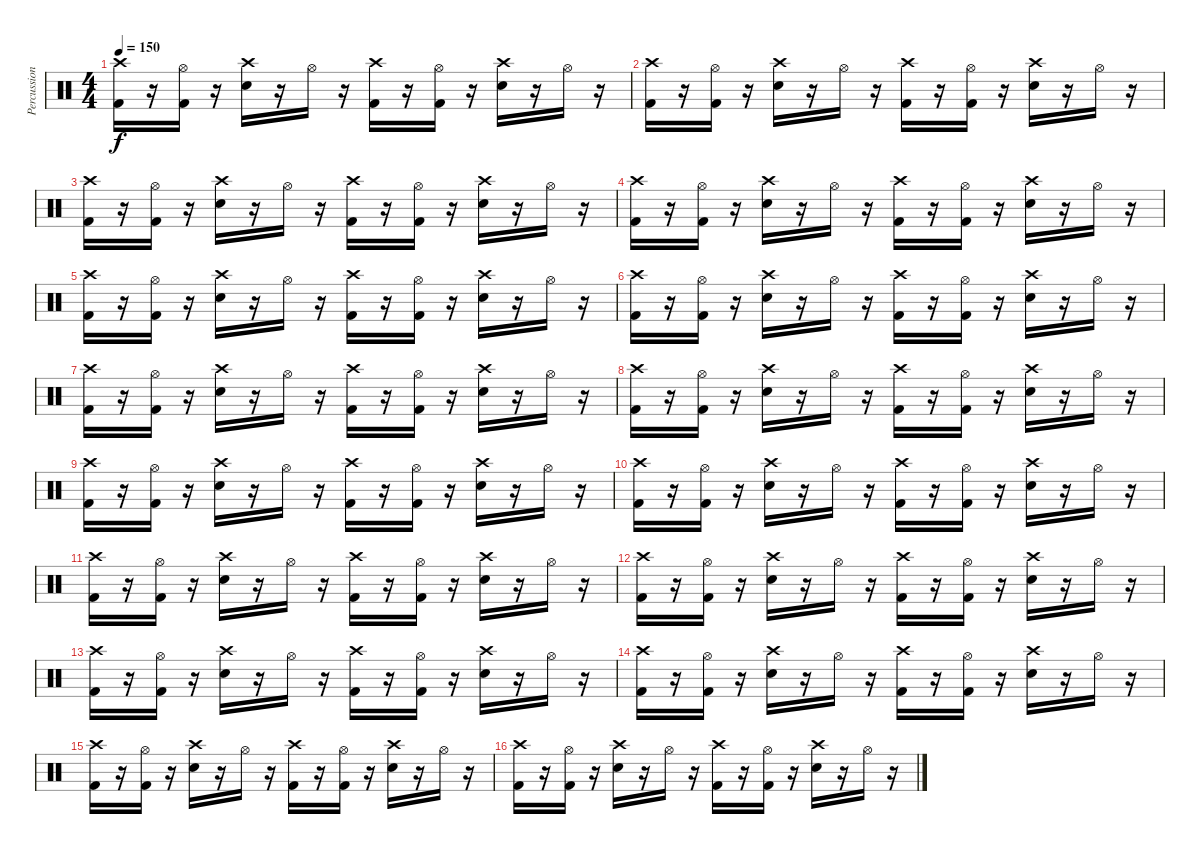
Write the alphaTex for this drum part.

\track ("Percussion" "Percussion") {instrument percussion}
\staff {score}
\articulation defaults
\ts (4 4)
\tempo 150
\clef neutral
\ks c
("Crash high (hit)" "Kick (hit) 2").16{dy f} r.16 ("Hi-Hat (open)" "Kick (hit) 2").16 r.16 ("Crash high (hit)" "Snare (hit) 2").16 r.16 "Hi-Hat (open)".16 r.16 ("Crash high (hit)" "Kick (hit) 2").16 r.16 ("Hi-Hat (open)" "Kick (hit) 2").16 r.16 ("Crash high (hit)" "Snare (hit) 2").16 r.16 "Hi-Hat (open)".16 r.16 |
("Crash high (hit)" "Kick (hit) 2").16 r.16 ("Hi-Hat (open)" "Kick (hit) 2").16 r.16 ("Crash high (hit)" "Snare (hit) 2").16 r.16 "Hi-Hat (open)".16 r.16 ("Crash high (hit)" "Kick (hit) 2").16 r.16 ("Hi-Hat (open)" "Kick (hit) 2").16 r.16 ("Crash high (hit)" "Snare (hit) 2").16 r.16 "Hi-Hat (open)".16 r.16 |
("Crash high (hit)" "Kick (hit) 2").16 r.16 ("Hi-Hat (open)" "Kick (hit) 2").16 r.16 ("Crash high (hit)" "Snare (hit) 2").16 r.16 "Hi-Hat (open)".16 r.16 ("Crash high (hit)" "Kick (hit) 2").16 r.16 ("Hi-Hat (open)" "Kick (hit) 2").16 r.16 ("Crash high (hit)" "Snare (hit) 2").16 r.16 "Hi-Hat (open)".16 r.16 |
("Crash high (hit)" "Kick (hit) 2").16 r.16 ("Hi-Hat (open)" "Kick (hit) 2").16 r.16 ("Crash high (hit)" "Snare (hit) 2").16 r.16 "Hi-Hat (open)".16 r.16 ("Crash high (hit)" "Kick (hit) 2").16 r.16 ("Hi-Hat (open)" "Kick (hit) 2").16 r.16 ("Crash high (hit)" "Snare (hit) 2").16 r.16 "Hi-Hat (open)".16 r.16 |
("Crash high (hit)" "Kick (hit) 2").16 r.16 ("Hi-Hat (open)" "Kick (hit) 2").16 r.16 ("Crash high (hit)" "Snare (hit) 2").16 r.16 "Hi-Hat (open)".16 r.16 ("Crash high (hit)" "Kick (hit) 2").16 r.16 ("Hi-Hat (open)" "Kick (hit) 2").16 r.16 ("Crash high (hit)" "Snare (hit) 2").16 r.16 "Hi-Hat (open)".16 r.16 |
("Crash high (hit)" "Kick (hit) 2").16 r.16 ("Hi-Hat (open)" "Kick (hit) 2").16 r.16 ("Crash high (hit)" "Snare (hit) 2").16 r.16 "Hi-Hat (open)".16 r.16 ("Crash high (hit)" "Kick (hit) 2").16 r.16 ("Hi-Hat (open)" "Kick (hit) 2").16 r.16 ("Crash high (hit)" "Snare (hit) 2").16 r.16 "Hi-Hat (open)".16 r.16 |
("Crash high (hit)" "Kick (hit) 2").16 r.16 ("Hi-Hat (open)" "Kick (hit) 2").16 r.16 ("Crash high (hit)" "Snare (hit) 2").16 r.16 "Hi-Hat (open)".16 r.16 ("Crash high (hit)" "Kick (hit) 2").16 r.16 ("Hi-Hat (open)" "Kick (hit) 2").16 r.16 ("Crash high (hit)" "Snare (hit) 2").16 r.16 "Hi-Hat (open)".16 r.16 |
("Crash high (hit)" "Kick (hit) 2").16 r.16 ("Hi-Hat (open)" "Kick (hit) 2").16 r.16 ("Crash high (hit)" "Snare (hit) 2").16 r.16 "Hi-Hat (open)".16 r.16 ("Crash high (hit)" "Kick (hit) 2").16 r.16 ("Hi-Hat (open)" "Kick (hit) 2").16 r.16 ("Crash high (hit)" "Snare (hit) 2").16 r.16 "Hi-Hat (open)".16 r.16 |
("Crash high (hit)" "Kick (hit) 2").16 r.16 ("Hi-Hat (open)" "Kick (hit) 2").16 r.16 ("Crash high (hit)" "Snare (hit) 2").16 r.16 "Hi-Hat (open)".16 r.16 ("Crash high (hit)" "Kick (hit) 2").16 r.16 ("Hi-Hat (open)" "Kick (hit) 2").16 r.16 ("Crash high (hit)" "Snare (hit) 2").16 r.16 "Hi-Hat (open)".16 r.16 |
("Crash high (hit)" "Kick (hit) 2").16 r.16 ("Hi-Hat (open)" "Kick (hit) 2").16 r.16 ("Crash high (hit)" "Snare (hit) 2").16 r.16 "Hi-Hat (open)".16 r.16 ("Crash high (hit)" "Kick (hit) 2").16 r.16 ("Hi-Hat (open)" "Kick (hit) 2").16 r.16 ("Crash high (hit)" "Snare (hit) 2").16 r.16 "Hi-Hat (open)".16 r.16 |
("Crash high (hit)" "Kick (hit) 2").16 r.16 ("Hi-Hat (open)" "Kick (hit) 2").16 r.16 ("Crash high (hit)" "Snare (hit) 2").16 r.16 "Hi-Hat (open)".16 r.16 ("Crash high (hit)" "Kick (hit) 2").16 r.16 ("Hi-Hat (open)" "Kick (hit) 2").16 r.16 ("Crash high (hit)" "Snare (hit) 2").16 r.16 "Hi-Hat (open)".16 r.16 |
("Crash high (hit)" "Kick (hit) 2").16 r.16 ("Hi-Hat (open)" "Kick (hit) 2").16 r.16 ("Crash high (hit)" "Snare (hit) 2").16 r.16 "Hi-Hat (open)".16 r.16 ("Crash high (hit)" "Kick (hit) 2").16 r.16 ("Hi-Hat (open)" "Kick (hit) 2").16 r.16 ("Crash high (hit)" "Snare (hit) 2").16 r.16 "Hi-Hat (open)".16 r.16 |
("Crash high (hit)" "Kick (hit) 2").16 r.16 ("Hi-Hat (open)" "Kick (hit) 2").16 r.16 ("Crash high (hit)" "Snare (hit) 2").16 r.16 "Hi-Hat (open)".16 r.16 ("Crash high (hit)" "Kick (hit) 2").16 r.16 ("Hi-Hat (open)" "Kick (hit) 2").16 r.16 ("Crash high (hit)" "Snare (hit) 2").16 r.16 "Hi-Hat (open)".16 r.16 |
("Crash high (hit)" "Kick (hit) 2").16 r.16 ("Hi-Hat (open)" "Kick (hit) 2").16 r.16 ("Crash high (hit)" "Snare (hit) 2").16 r.16 "Hi-Hat (open)".16 r.16 ("Crash high (hit)" "Kick (hit) 2").16 r.16 ("Hi-Hat (open)" "Kick (hit) 2").16 r.16 ("Crash high (hit)" "Snare (hit) 2").16 r.16 "Hi-Hat (open)".16 r.16 |
("Crash high (hit)" "Kick (hit) 2").16 r.16 ("Hi-Hat (open)" "Kick (hit) 2").16 r.16 ("Crash high (hit)" "Snare (hit) 2").16 r.16 "Hi-Hat (open)".16 r.16 ("Crash high (hit)" "Kick (hit) 2").16 r.16 ("Hi-Hat (open)" "Kick (hit) 2").16 r.16 ("Crash high (hit)" "Snare (hit) 2").16 r.16 "Hi-Hat (open)".16 r.16 |
("Crash high (hit)" "Kick (hit) 2").16 r.16 ("Hi-Hat (open)" "Kick (hit) 2").16 r.16 ("Crash high (hit)" "Snare (hit) 2").16 r.16 "Hi-Hat (open)".16 r.16 ("Crash high (hit)" "Kick (hit) 2").16 r.16 ("Hi-Hat (open)" "Kick (hit) 2").16 r.16 ("Crash high (hit)" "Snare (hit) 2").16 r.16 "Hi-Hat (open)".16 r.16
